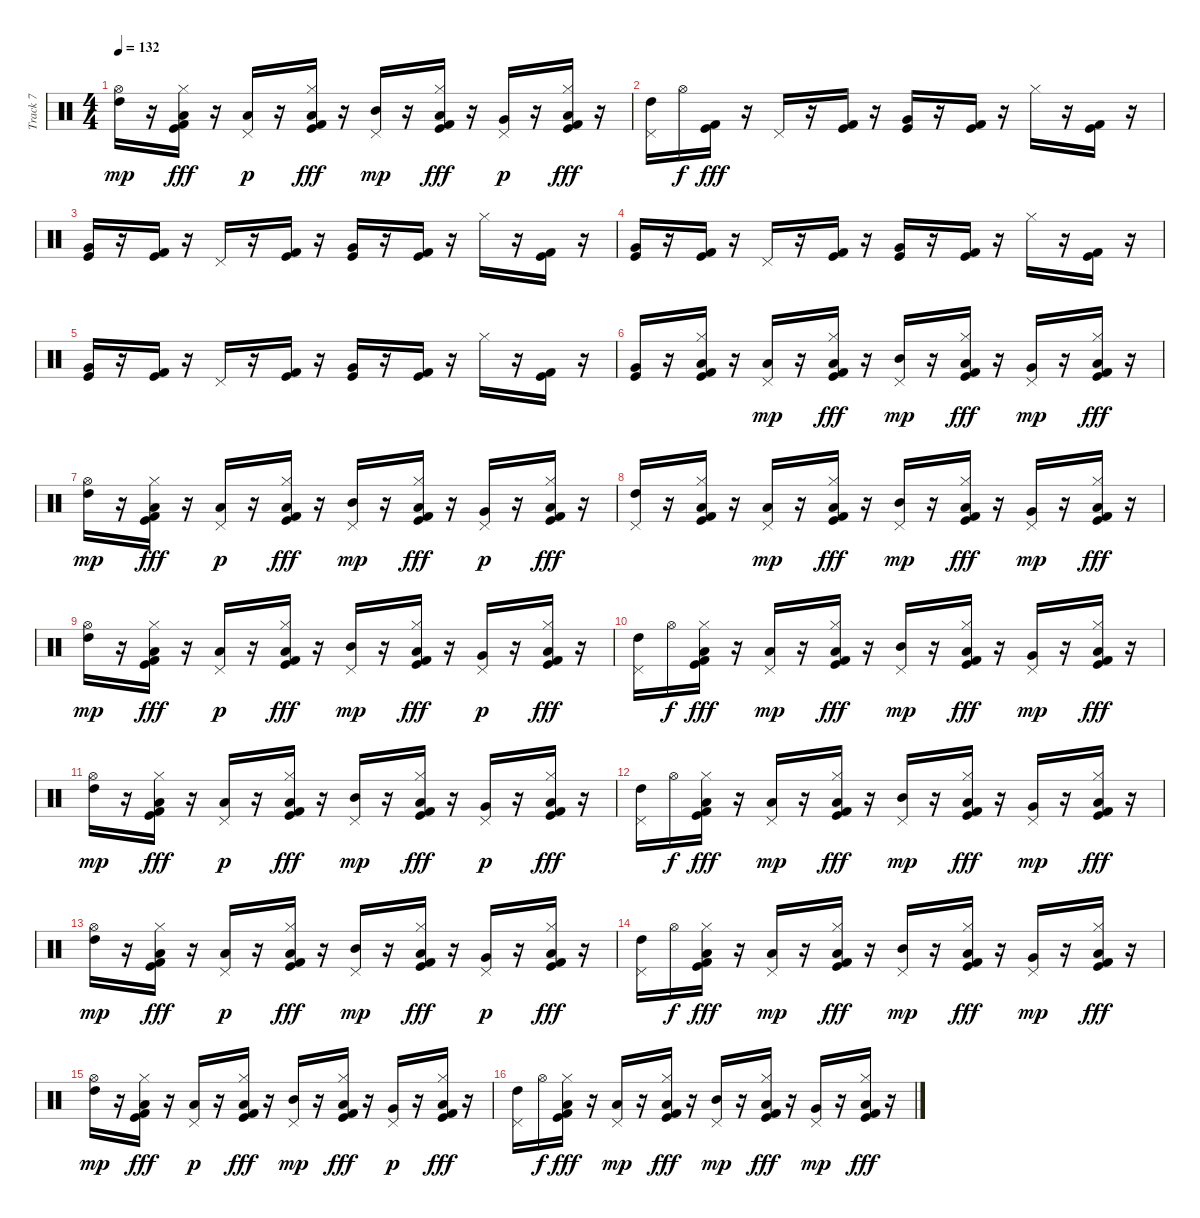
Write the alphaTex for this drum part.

\track ("Track 7" "Track 7") {instrument percussion}
\staff {score}
\articulation defaults
\ts (4 4)
\tempo 132
\clef neutral
\ks c
("High Tom (hit)" "Hi-Hat (open)").16{dy mp} r.16 ("Low Floor Tom (hit)" "Hi-Hat (closed)" "Kick (hit) 2" "Kick (hit)").16{dy fff} r.16 ("Low Tom (hit)" "Pedal Hi-Hat (hit)").16{dy p} r.16 ("Low Floor Tom (hit)" "Hi-Hat (closed)" "Kick (hit) 2" "Kick (hit)").16{dy fff} r.16 ("Mid Tom (hit)" "Pedal Hi-Hat (hit)").16{dy mp} r.16 ("Low Floor Tom (hit)" "Hi-Hat (closed)" "Kick (hit) 2" "Kick (hit)").16{dy fff} r.16 ("Very Low Tom (hit)" "Pedal Hi-Hat (hit)").16{dy p} r.16 ("Low Floor Tom (hit)" "Hi-Hat (closed)" "Kick (hit) 2" "Kick (hit)").16{dy fff} r.16 |
("High Tom (hit)" "Pedal Hi-Hat (hit)").16 "Hi-Hat (open)".16{dy f} ("Kick (hit)" "Kick (hit) 2").16{dy fff} r.16 "Pedal Hi-Hat (hit)".16 r.16 ("Kick (hit)" "Kick (hit) 2").16 r.16 ("Very Low Tom (hit)" "Kick (hit)").16 r.16 ("Kick (hit)" "Kick (hit) 2").16 r.16 "Hi-Hat (closed)".16 r.16 ("Kick (hit)" "Kick (hit) 2").16 r.16 |
("Very Low Tom (hit)" "Kick (hit)").16 r.16 ("Kick (hit) 2" "Kick (hit)").16 r.16 "Pedal Hi-Hat (hit)".16 r.16 ("Kick (hit) 2" "Kick (hit)").16 r.16 ("Kick (hit)" "Very Low Tom (hit)").16 r.16 ("Kick (hit) 2" "Kick (hit)").16 r.16 "Hi-Hat (closed)".16 r.16 ("Kick (hit) 2" "Kick (hit)").16 r.16 |
("Kick (hit)" "Very Low Tom (hit)").16 r.16 ("Kick (hit)" "Kick (hit) 2").16 r.16 "Pedal Hi-Hat (hit)".16 r.16 ("Kick (hit)" "Kick (hit) 2").16 r.16 ("Very Low Tom (hit)" "Kick (hit)").16 r.16 ("Kick (hit)" "Kick (hit) 2").16 r.16 "Hi-Hat (closed)".16 r.16 ("Kick (hit)" "Kick (hit) 2").16 r.16 |
("Very Low Tom (hit)" "Kick (hit)").16 r.16 ("Kick (hit) 2" "Kick (hit)").16 r.16 "Pedal Hi-Hat (hit)".16 r.16 ("Kick (hit) 2" "Kick (hit)").16 r.16 ("Kick (hit)" "Very Low Tom (hit)").16 r.16 ("Kick (hit) 2" "Kick (hit)").16 r.16 "Hi-Hat (closed)".16 r.16 ("Kick (hit) 2" "Kick (hit)").16 r.16 |
("Kick (hit)" "Very Low Tom (hit)").16 r.16 ("Low Floor Tom (hit)" "Hi-Hat (closed)" "Kick (hit)" "Kick (hit) 2").16 r.16 ("Low Tom (hit)" "Pedal Hi-Hat (hit)").16{dy mp} r.16 ("Low Floor Tom (hit)" "Hi-Hat (closed)" "Kick (hit)" "Kick (hit) 2").16{dy fff} r.16 ("Mid Tom (hit)" "Pedal Hi-Hat (hit)").16{dy mp} r.16 ("Low Floor Tom (hit)" "Hi-Hat (closed)" "Kick (hit)" "Kick (hit) 2").16{dy fff} r.16 ("Very Low Tom (hit)" "Pedal Hi-Hat (hit)").16{dy mp} r.16 ("Low Floor Tom (hit)" "Hi-Hat (closed)" "Kick (hit)" "Kick (hit) 2").16{dy fff} r.16 |
("High Tom (hit)" "Hi-Hat (open)").16{dy mp} r.16 ("Low Floor Tom (hit)" "Hi-Hat (closed)" "Kick (hit) 2" "Kick (hit)").16{dy fff} r.16 ("Low Tom (hit)" "Pedal Hi-Hat (hit)").16{dy p} r.16 ("Low Floor Tom (hit)" "Hi-Hat (closed)" "Kick (hit) 2" "Kick (hit)").16{dy fff} r.16 ("Mid Tom (hit)" "Pedal Hi-Hat (hit)").16{dy mp} r.16 ("Low Floor Tom (hit)" "Hi-Hat (closed)" "Kick (hit) 2" "Kick (hit)").16{dy fff} r.16 ("Very Low Tom (hit)" "Pedal Hi-Hat (hit)").16{dy p} r.16 ("Low Floor Tom (hit)" "Hi-Hat (closed)" "Kick (hit) 2" "Kick (hit)").16{dy fff} r.16 |
("High Tom (hit)" "Pedal Hi-Hat (hit)").16 r.16 ("Low Floor Tom (hit)" "Hi-Hat (closed)" "Kick (hit)" "Kick (hit) 2").16 r.16 ("Low Tom (hit)" "Pedal Hi-Hat (hit)").16{dy mp} r.16 ("Low Floor Tom (hit)" "Hi-Hat (closed)" "Kick (hit)" "Kick (hit) 2").16{dy fff} r.16 ("Mid Tom (hit)" "Pedal Hi-Hat (hit)").16{dy mp} r.16 ("Low Floor Tom (hit)" "Hi-Hat (closed)" "Kick (hit)" "Kick (hit) 2").16{dy fff} r.16 ("Very Low Tom (hit)" "Pedal Hi-Hat (hit)").16{dy mp} r.16 ("Low Floor Tom (hit)" "Hi-Hat (closed)" "Kick (hit)" "Kick (hit) 2").16{dy fff} r.16 |
("High Tom (hit)" "Hi-Hat (open)").16{dy mp} r.16 ("Low Floor Tom (hit)" "Hi-Hat (closed)" "Kick (hit) 2" "Kick (hit)").16{dy fff} r.16 ("Low Tom (hit)" "Pedal Hi-Hat (hit)").16{dy p} r.16 ("Low Floor Tom (hit)" "Hi-Hat (closed)" "Kick (hit) 2" "Kick (hit)").16{dy fff} r.16 ("Mid Tom (hit)" "Pedal Hi-Hat (hit)").16{dy mp} r.16 ("Low Floor Tom (hit)" "Hi-Hat (closed)" "Kick (hit) 2" "Kick (hit)").16{dy fff} r.16 ("Very Low Tom (hit)" "Pedal Hi-Hat (hit)").16{dy p} r.16 ("Low Floor Tom (hit)" "Hi-Hat (closed)" "Kick (hit) 2" "Kick (hit)").16{dy fff} r.16 |
("High Tom (hit)" "Pedal Hi-Hat (hit)").16 "Hi-Hat (open)".16{dy f} ("Low Floor Tom (hit)" "Hi-Hat (closed)" "Kick (hit)" "Kick (hit) 2").16{dy fff} r.16 ("Low Tom (hit)" "Pedal Hi-Hat (hit)").16{dy mp} r.16 ("Low Floor Tom (hit)" "Hi-Hat (closed)" "Kick (hit)" "Kick (hit) 2").16{dy fff} r.16 ("Mid Tom (hit)" "Pedal Hi-Hat (hit)").16{dy mp} r.16 ("Low Floor Tom (hit)" "Hi-Hat (closed)" "Kick (hit)" "Kick (hit) 2").16{dy fff} r.16 ("Very Low Tom (hit)" "Pedal Hi-Hat (hit)").16{dy mp} r.16 ("Low Floor Tom (hit)" "Hi-Hat (closed)" "Kick (hit)" "Kick (hit) 2").16{dy fff} r.16 |
("High Tom (hit)" "Hi-Hat (open)").16{dy mp} r.16 ("Low Floor Tom (hit)" "Hi-Hat (closed)" "Kick (hit) 2" "Kick (hit)").16{dy fff} r.16 ("Low Tom (hit)" "Pedal Hi-Hat (hit)").16{dy p} r.16 ("Low Floor Tom (hit)" "Hi-Hat (closed)" "Kick (hit) 2" "Kick (hit)").16{dy fff} r.16 ("Mid Tom (hit)" "Pedal Hi-Hat (hit)").16{dy mp} r.16 ("Low Floor Tom (hit)" "Hi-Hat (closed)" "Kick (hit) 2" "Kick (hit)").16{dy fff} r.16 ("Very Low Tom (hit)" "Pedal Hi-Hat (hit)").16{dy p} r.16 ("Low Floor Tom (hit)" "Hi-Hat (closed)" "Kick (hit) 2" "Kick (hit)").16{dy fff} r.16 |
("High Tom (hit)" "Pedal Hi-Hat (hit)").16 "Hi-Hat (open)".16{dy f} ("Low Floor Tom (hit)" "Hi-Hat (closed)" "Kick (hit)" "Kick (hit) 2").16{dy fff} r.16 ("Low Tom (hit)" "Pedal Hi-Hat (hit)").16{dy mp} r.16 ("Low Floor Tom (hit)" "Hi-Hat (closed)" "Kick (hit)" "Kick (hit) 2").16{dy fff} r.16 ("Mid Tom (hit)" "Pedal Hi-Hat (hit)").16{dy mp} r.16 ("Low Floor Tom (hit)" "Hi-Hat (closed)" "Kick (hit)" "Kick (hit) 2").16{dy fff} r.16 ("Very Low Tom (hit)" "Pedal Hi-Hat (hit)").16{dy mp} r.16 ("Low Floor Tom (hit)" "Hi-Hat (closed)" "Kick (hit)" "Kick (hit) 2").16{dy fff} r.16 |
("High Tom (hit)" "Hi-Hat (open)").16{dy mp} r.16 ("Low Floor Tom (hit)" "Hi-Hat (closed)" "Kick (hit) 2" "Kick (hit)").16{dy fff} r.16 ("Low Tom (hit)" "Pedal Hi-Hat (hit)").16{dy p} r.16 ("Low Floor Tom (hit)" "Hi-Hat (closed)" "Kick (hit) 2" "Kick (hit)").16{dy fff} r.16 ("Mid Tom (hit)" "Pedal Hi-Hat (hit)").16{dy mp} r.16 ("Low Floor Tom (hit)" "Hi-Hat (closed)" "Kick (hit) 2" "Kick (hit)").16{dy fff} r.16 ("Very Low Tom (hit)" "Pedal Hi-Hat (hit)").16{dy p} r.16 ("Low Floor Tom (hit)" "Hi-Hat (closed)" "Kick (hit) 2" "Kick (hit)").16{dy fff} r.16 |
("High Tom (hit)" "Pedal Hi-Hat (hit)").16 "Hi-Hat (open)".16{dy f} ("Low Floor Tom (hit)" "Hi-Hat (closed)" "Kick (hit)" "Kick (hit) 2").16{dy fff} r.16 ("Low Tom (hit)" "Pedal Hi-Hat (hit)").16{dy mp} r.16 ("Low Floor Tom (hit)" "Hi-Hat (closed)" "Kick (hit)" "Kick (hit) 2").16{dy fff} r.16 ("Mid Tom (hit)" "Pedal Hi-Hat (hit)").16{dy mp} r.16 ("Low Floor Tom (hit)" "Hi-Hat (closed)" "Kick (hit)" "Kick (hit) 2").16{dy fff} r.16 ("Very Low Tom (hit)" "Pedal Hi-Hat (hit)").16{dy mp} r.16 ("Low Floor Tom (hit)" "Hi-Hat (closed)" "Kick (hit)" "Kick (hit) 2").16{dy fff} r.16 |
("High Tom (hit)" "Hi-Hat (open)").16{dy mp} r.16 ("Low Floor Tom (hit)" "Hi-Hat (closed)" "Kick (hit) 2" "Kick (hit)").16{dy fff} r.16 ("Low Tom (hit)" "Pedal Hi-Hat (hit)").16{dy p} r.16 ("Low Floor Tom (hit)" "Hi-Hat (closed)" "Kick (hit) 2" "Kick (hit)").16{dy fff} r.16 ("Mid Tom (hit)" "Pedal Hi-Hat (hit)").16{dy mp} r.16 ("Low Floor Tom (hit)" "Hi-Hat (closed)" "Kick (hit) 2" "Kick (hit)").16{dy fff} r.16 ("Very Low Tom (hit)" "Pedal Hi-Hat (hit)").16{dy p} r.16 ("Low Floor Tom (hit)" "Hi-Hat (closed)" "Kick (hit) 2" "Kick (hit)").16{dy fff} r.16 |
("High Tom (hit)" "Pedal Hi-Hat (hit)").16 "Hi-Hat (open)".16{dy f} ("Low Floor Tom (hit)" "Hi-Hat (closed)" "Kick (hit)" "Kick (hit) 2").16{dy fff} r.16 ("Low Tom (hit)" "Pedal Hi-Hat (hit)").16{dy mp} r.16 ("Low Floor Tom (hit)" "Hi-Hat (closed)" "Kick (hit)" "Kick (hit) 2").16{dy fff} r.16 ("Mid Tom (hit)" "Pedal Hi-Hat (hit)").16{dy mp} r.16 ("Low Floor Tom (hit)" "Hi-Hat (closed)" "Kick (hit)" "Kick (hit) 2").16{dy fff} r.16 ("Very Low Tom (hit)" "Pedal Hi-Hat (hit)").16{dy mp} r.16 ("Low Floor Tom (hit)" "Hi-Hat (closed)" "Kick (hit)" "Kick (hit) 2").16{dy fff} r.16
